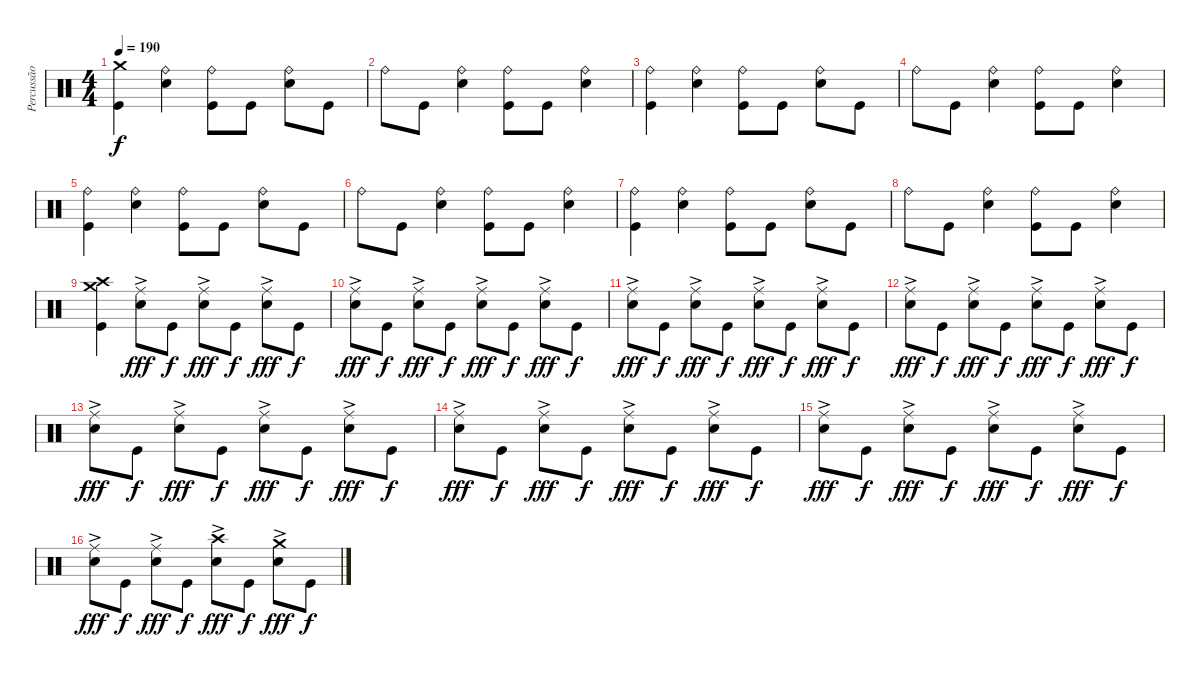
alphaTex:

\track ("Percussão" "Percussão") {instrument percussion}
\staff {score}
\articulation defaults
\ts (4 4)
\tempo 190
\clef neutral
\ks c
("Crash medium (hit)" "Kick (hit)").4{dy f} ("Ride (bell)" "Snare (hit) 2").4 ("Ride (bell)" "Kick (hit)").8 "Kick (hit)".8 ("Ride (bell)" "Snare (hit) 2").8 "Kick (hit)".8 |
"Ride (bell)".8 "Kick (hit)".8 ("Ride (bell)" "Snare (hit) 2").4 ("Ride (bell)" "Kick (hit)").8 "Kick (hit)".8 ("Ride (bell)" "Snare (hit) 2").4 |
("Ride (bell)" "Kick (hit)").4 ("Ride (bell)" "Snare (hit) 2").4 ("Ride (bell)" "Kick (hit)").8 "Kick (hit)".8 ("Ride (bell)" "Snare (hit) 2").8 "Kick (hit)".8 |
"Ride (bell)".8 "Kick (hit)".8 ("Ride (bell)" "Snare (hit) 2").4 ("Ride (bell)" "Kick (hit)").8 "Kick (hit)".8 ("Ride (bell)" "Snare (hit) 2").4 |
("Ride (bell)" "Kick (hit)").4 ("Ride (bell)" "Snare (hit) 2").4 ("Ride (bell)" "Kick (hit)").8 "Kick (hit)".8 ("Ride (bell)" "Snare (hit) 2").8 "Kick (hit)".8 |
"Ride (bell)".8 "Kick (hit)".8 ("Ride (bell)" "Snare (hit) 2").4 ("Ride (bell)" "Kick (hit)").8 "Kick (hit)".8 ("Ride (bell)" "Snare (hit) 2").4 |
("Ride (bell)" "Kick (hit)").4 ("Ride (bell)" "Snare (hit) 2").4 ("Ride (bell)" "Kick (hit)").8 "Kick (hit)".8 ("Ride (bell)" "Snare (hit) 2").8 "Kick (hit)".8 |
"Ride (bell)".8 "Kick (hit)".8 ("Ride (bell)" "Snare (hit) 2").4 ("Ride (bell)" "Kick (hit)").8 "Kick (hit)".8 ("Ride (bell)" "Snare (hit) 2").4 |
("Crash medium (hit)" "Crash high (hit)" "Kick (hit)").4 ("Ride (middle)"{ac} "Snare (hit) 2").8{dy fff} "Kick (hit)".8{dy f} ("Ride (middle)"{ac} "Snare (hit) 2").8{dy fff} "Kick (hit)".8{dy f} ("Ride (middle)"{ac} "Snare (hit) 2").8{dy fff} "Kick (hit)".8{dy f} |
("Ride (middle)"{ac} "Snare (hit) 2").8{dy fff} "Kick (hit)".8{dy f} ("Ride (middle)"{ac} "Snare (hit) 2").8{dy fff} "Kick (hit)".8{dy f} ("Ride (middle)"{ac} "Snare (hit) 2").8{dy fff} "Kick (hit)".8{dy f} ("Ride (middle)"{ac} "Snare (hit) 2").8{dy fff} "Kick (hit)".8{dy f} |
("Ride (middle)"{ac} "Snare (hit) 2").8{dy fff} "Kick (hit)".8{dy f} ("Ride (middle)"{ac} "Snare (hit) 2").8{dy fff} "Kick (hit)".8{dy f} ("Ride (middle)"{ac} "Snare (hit) 2").8{dy fff} "Kick (hit)".8{dy f} ("Ride (middle)"{ac} "Snare (hit) 2").8{dy fff} "Kick (hit)".8{dy f} |
("Ride (middle)"{ac} "Snare (hit) 2").8{dy fff} "Kick (hit)".8{dy f} ("Ride (middle)"{ac} "Snare (hit) 2").8{dy fff} "Kick (hit)".8{dy f} ("Ride (middle)"{ac} "Snare (hit) 2").8{dy fff} "Kick (hit)".8{dy f} ("Ride (middle)"{ac} "Snare (hit) 2").8{dy fff} "Kick (hit)".8{dy f} |
("Ride (middle)"{ac} "Snare (hit) 2").8{dy fff} "Kick (hit)".8{dy f} ("Ride (middle)"{ac} "Snare (hit) 2").8{dy fff} "Kick (hit)".8{dy f} ("Ride (middle)"{ac} "Snare (hit) 2").8{dy fff} "Kick (hit)".8{dy f} ("Ride (middle)"{ac} "Snare (hit) 2").8{dy fff} "Kick (hit)".8{dy f} |
("Ride (middle)"{ac} "Snare (hit) 2").8{dy fff} "Kick (hit)".8{dy f} ("Ride (middle)"{ac} "Snare (hit) 2").8{dy fff} "Kick (hit)".8{dy f} ("Ride (middle)"{ac} "Snare (hit) 2").8{dy fff} "Kick (hit)".8{dy f} ("Ride (middle)"{ac} "Snare (hit) 2").8{dy fff} "Kick (hit)".8{dy f} |
("Ride (middle)"{ac} "Snare (hit) 2").8{dy fff} "Kick (hit)".8{dy f} ("Ride (middle)"{ac} "Snare (hit) 2").8{dy fff} "Kick (hit)".8{dy f} ("Ride (middle)"{ac} "Snare (hit) 2").8{dy fff} "Kick (hit)".8{dy f} ("Ride (middle)"{ac} "Snare (hit) 2").8{dy fff} "Kick (hit)".8{dy f} |
("Ride (middle)"{ac} "Snare (hit) 2").8{dy fff} "Kick (hit)".8{dy f} ("Ride (middle)"{ac} "Snare (hit) 2").8{dy fff} "Kick (hit)".8{dy f} ("Crash high (hit)"{ac} "Snare (hit) 2").8{dy fff} "Kick (hit)".8{dy f} ("Crash medium (hit)"{ac} "Snare (hit) 2").8{dy fff} "Kick (hit)".8{dy f}
